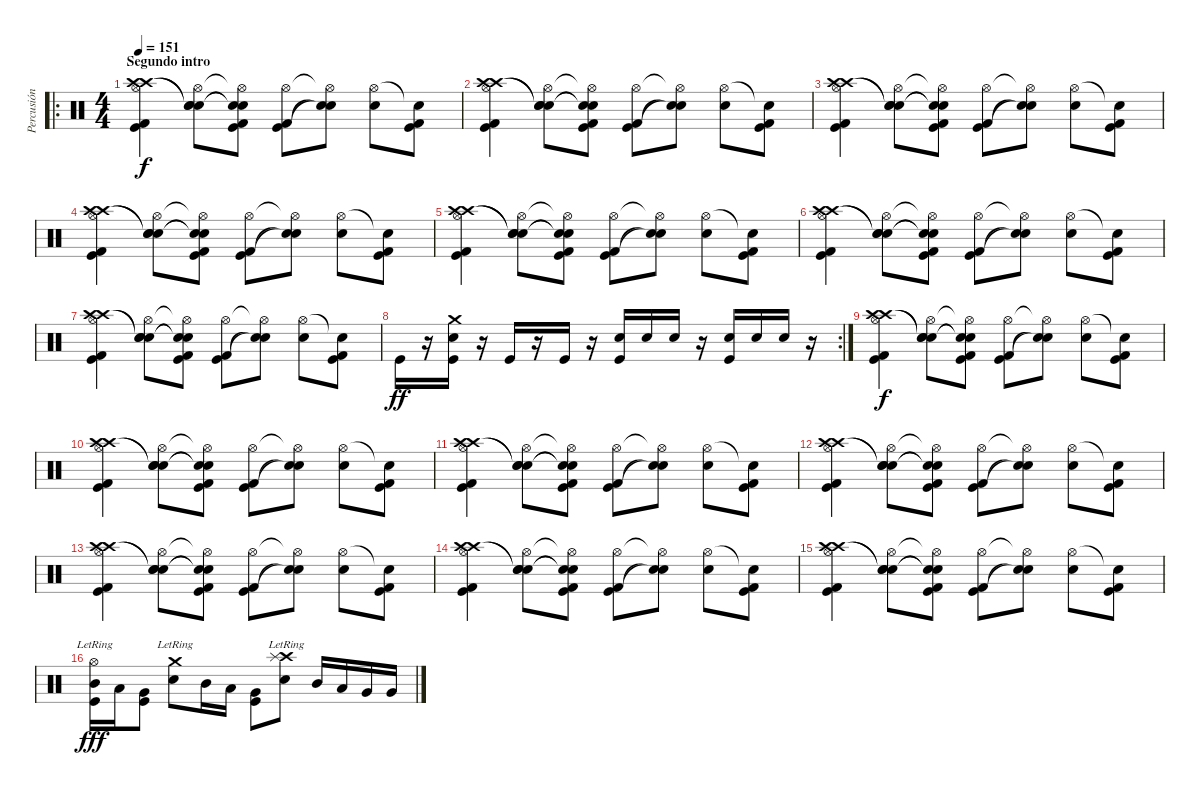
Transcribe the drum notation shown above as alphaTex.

\track ("Percusión" "Percusión") {instrument percussion}
\staff {score}
\articulation defaults
\ro
\ts (4 4)
\section ("" "Segundo intro")
\tempo 151
\clef neutral
\ks c
("Hi-Hat (open)" "Crash high (hit)" "Crash high (hit)" "Kick (hit)" "Kick (hit) 2").4{dy f} ("Hi-Hat (open)" "Snare (hit)"{t} "Snare (hit)"{t} "Electric Snare (hit)").8 ("Hi-Hat (open)"{t} "Snare (hit)"{t} "Snare (hit)"{t} "Kick (hit)" "Kick (hit) 2").8 ("Hi-Hat (open)" "Kick (hit)" "Kick (hit) 2").8 ("Hi-Hat (open)"{t} "Electric Snare (hit)"{t} "Snare (hit)"{t}).8 ("Hi-Hat (open)" "Electric Snare (hit)").8 ("Snare (hit)"{t} "Kick (hit)" "Kick (hit) 2").8 |
("Hi-Hat (open)" "Crash high (hit)" "Crash high (hit)" "Kick (hit)" "Kick (hit) 2").4 ("Hi-Hat (open)" "Snare (hit)"{t} "Snare (hit)"{t} "Electric Snare (hit)").8 ("Hi-Hat (open)"{t} "Snare (hit)"{t} "Snare (hit)"{t} "Kick (hit)" "Kick (hit) 2").8 ("Hi-Hat (open)" "Kick (hit)" "Kick (hit) 2").8 ("Hi-Hat (open)"{t} "Electric Snare (hit)"{t} "Snare (hit)"{t}).8 ("Hi-Hat (open)" "Electric Snare (hit)").8 ("Snare (hit)"{t} "Kick (hit)" "Kick (hit) 2").8 |
("Hi-Hat (open)" "Crash high (hit)" "Crash high (hit)" "Kick (hit)" "Kick (hit) 2").4 ("Hi-Hat (open)" "Snare (hit)"{t} "Snare (hit)"{t} "Electric Snare (hit)").8 ("Hi-Hat (open)"{t} "Snare (hit)"{t} "Snare (hit)"{t} "Kick (hit)" "Kick (hit) 2").8 ("Hi-Hat (open)" "Kick (hit)" "Kick (hit) 2").8 ("Hi-Hat (open)"{t} "Electric Snare (hit)"{t} "Snare (hit)"{t}).8 ("Hi-Hat (open)" "Electric Snare (hit)").8 ("Snare (hit)"{t} "Kick (hit)" "Kick (hit) 2").8 |
("Hi-Hat (open)" "Crash high (hit)" "Crash high (hit)" "Kick (hit)" "Kick (hit) 2").4 ("Hi-Hat (open)" "Snare (hit)"{t} "Snare (hit)"{t} "Electric Snare (hit)").8 ("Hi-Hat (open)"{t} "Snare (hit)"{t} "Snare (hit)"{t} "Kick (hit)" "Kick (hit) 2").8 ("Hi-Hat (open)" "Kick (hit)" "Kick (hit) 2").8 ("Hi-Hat (open)"{t} "Electric Snare (hit)"{t} "Snare (hit)"{t}).8 ("Hi-Hat (open)" "Electric Snare (hit)").8 ("Snare (hit)"{t} "Kick (hit)" "Kick (hit) 2").8 |
("Hi-Hat (open)" "Crash high (hit)" "Crash high (hit)" "Kick (hit)" "Kick (hit) 2").4 ("Hi-Hat (open)" "Snare (hit)"{t} "Snare (hit)"{t} "Electric Snare (hit)").8 ("Hi-Hat (open)"{t} "Snare (hit)"{t} "Snare (hit)"{t} "Kick (hit)" "Kick (hit) 2").8 ("Hi-Hat (open)" "Kick (hit)" "Kick (hit) 2").8 ("Hi-Hat (open)"{t} "Electric Snare (hit)"{t} "Snare (hit)"{t}).8 ("Hi-Hat (open)" "Electric Snare (hit)").8 ("Snare (hit)"{t} "Kick (hit)" "Kick (hit) 2").8 |
("Hi-Hat (open)" "Crash high (hit)" "Crash high (hit)" "Kick (hit)" "Kick (hit) 2").4 ("Hi-Hat (open)" "Snare (hit)"{t} "Snare (hit)"{t} "Electric Snare (hit)").8 ("Hi-Hat (open)"{t} "Snare (hit)"{t} "Snare (hit)"{t} "Kick (hit)" "Kick (hit) 2").8 ("Hi-Hat (open)" "Kick (hit)" "Kick (hit) 2").8 ("Hi-Hat (open)"{t} "Electric Snare (hit)"{t} "Snare (hit)"{t}).8 ("Hi-Hat (open)" "Electric Snare (hit)").8 ("Snare (hit)"{t} "Kick (hit)" "Kick (hit) 2").8 |
("Hi-Hat (open)" "Crash high (hit)" "Crash high (hit)" "Kick (hit)" "Kick (hit) 2").4 ("Hi-Hat (open)" "Snare (hit)"{t} "Snare (hit)"{t} "Electric Snare (hit)").8 ("Hi-Hat (open)"{t} "Snare (hit)"{t} "Snare (hit)"{t} "Kick (hit)" "Kick (hit) 2").8 ("Hi-Hat (open)" "Kick (hit)" "Kick (hit) 2").8 ("Hi-Hat (open)"{t} "Electric Snare (hit)"{t} "Snare (hit)"{t}).8 ("Hi-Hat (open)" "Electric Snare (hit)").8 ("Snare (hit)"{t} "Kick (hit)" "Kick (hit) 2").8 |
\rc 2 "Kick (hit)".16{dy ff}
r.16 ("Kick (hit)" "Snare (hit) 2" "Crash medium (hit)").16 r.16 "Kick (hit)".16 r.16 "Kick (hit)".16 r.16 ("Kick (hit)" "Snare (hit) 2").16 "Snare (hit) 2".16 "Snare (hit) 2".16 r.16 ("Kick (hit)" "Snare (hit) 2").16 "Snare (hit) 2".16 "Snare (hit) 2".16 r.16 |
("Hi-Hat (open)" "Crash high (hit)" "Crash high (hit)" "Kick (hit)" "Kick (hit) 2").4{dy f} ("Hi-Hat (open)" "Snare (hit)"{t} "Snare (hit)"{t} "Electric Snare (hit)").8 ("Hi-Hat (open)"{t} "Snare (hit)"{t} "Snare (hit)"{t} "Kick (hit)" "Kick (hit) 2").8 ("Hi-Hat (open)" "Kick (hit)" "Kick (hit) 2").8 ("Hi-Hat (open)"{t} "Electric Snare (hit)"{t} "Snare (hit)"{t}).8 ("Hi-Hat (open)" "Electric Snare (hit)").8 ("Snare (hit)"{t} "Kick (hit)" "Kick (hit) 2").8 |
("Hi-Hat (open)" "Crash high (hit)" "Crash high (hit)" "Kick (hit)" "Kick (hit) 2").4 ("Hi-Hat (open)" "Snare (hit)"{t} "Snare (hit)"{t} "Electric Snare (hit)").8 ("Hi-Hat (open)"{t} "Snare (hit)"{t} "Snare (hit)"{t} "Kick (hit)" "Kick (hit) 2").8 ("Hi-Hat (open)" "Kick (hit)" "Kick (hit) 2").8 ("Hi-Hat (open)"{t} "Electric Snare (hit)"{t} "Snare (hit)"{t}).8 ("Hi-Hat (open)" "Electric Snare (hit)").8 ("Snare (hit)"{t} "Kick (hit)" "Kick (hit) 2").8 |
("Hi-Hat (open)" "Crash high (hit)" "Crash high (hit)" "Kick (hit)" "Kick (hit) 2").4 ("Hi-Hat (open)" "Snare (hit)"{t} "Snare (hit)"{t} "Electric Snare (hit)").8 ("Hi-Hat (open)"{t} "Snare (hit)"{t} "Snare (hit)"{t} "Kick (hit)" "Kick (hit) 2").8 ("Hi-Hat (open)" "Kick (hit)" "Kick (hit) 2").8 ("Hi-Hat (open)"{t} "Electric Snare (hit)"{t} "Snare (hit)"{t}).8 ("Hi-Hat (open)" "Electric Snare (hit)").8 ("Snare (hit)"{t} "Kick (hit)" "Kick (hit) 2").8 |
("Hi-Hat (open)" "Crash high (hit)" "Crash high (hit)" "Kick (hit)" "Kick (hit) 2").4 ("Hi-Hat (open)" "Snare (hit)"{t} "Snare (hit)"{t} "Electric Snare (hit)").8 ("Hi-Hat (open)"{t} "Snare (hit)"{t} "Snare (hit)"{t} "Kick (hit)" "Kick (hit) 2").8 ("Hi-Hat (open)" "Kick (hit)" "Kick (hit) 2").8 ("Hi-Hat (open)"{t} "Electric Snare (hit)"{t} "Snare (hit)"{t}).8 ("Hi-Hat (open)" "Electric Snare (hit)").8 ("Snare (hit)"{t} "Kick (hit)" "Kick (hit) 2").8 |
("Hi-Hat (open)" "Crash high (hit)" "Crash high (hit)" "Kick (hit)" "Kick (hit) 2").4 ("Hi-Hat (open)" "Snare (hit)"{t} "Snare (hit)"{t} "Electric Snare (hit)").8 ("Hi-Hat (open)"{t} "Snare (hit)"{t} "Snare (hit)"{t} "Kick (hit)" "Kick (hit) 2").8 ("Hi-Hat (open)" "Kick (hit)" "Kick (hit) 2").8 ("Hi-Hat (open)"{t} "Electric Snare (hit)"{t} "Snare (hit)"{t}).8 ("Hi-Hat (open)" "Electric Snare (hit)").8 ("Snare (hit)"{t} "Kick (hit)" "Kick (hit) 2").8 |
("Hi-Hat (open)" "Crash high (hit)" "Crash high (hit)" "Kick (hit)" "Kick (hit) 2").4 ("Hi-Hat (open)" "Snare (hit)"{t} "Snare (hit)"{t} "Electric Snare (hit)").8 ("Hi-Hat (open)"{t} "Snare (hit)"{t} "Snare (hit)"{t} "Kick (hit)" "Kick (hit) 2").8 ("Hi-Hat (open)" "Kick (hit)" "Kick (hit) 2").8 ("Hi-Hat (open)"{t} "Electric Snare (hit)"{t} "Snare (hit)"{t}).8 ("Hi-Hat (open)" "Electric Snare (hit)").8 ("Snare (hit)"{t} "Kick (hit)" "Kick (hit) 2").8 |
("Hi-Hat (open)" "Crash high (hit)" "Crash high (hit)" "Kick (hit)" "Kick (hit) 2").4 ("Hi-Hat (open)" "Snare (hit)"{t} "Snare (hit)"{t} "Electric Snare (hit)").8 ("Hi-Hat (open)"{t} "Snare (hit)"{t} "Snare (hit)"{t} "Kick (hit)" "Kick (hit) 2").8 ("Hi-Hat (open)" "Kick (hit)" "Kick (hit) 2").8 ("Hi-Hat (open)"{t} "Electric Snare (hit)"{t} "Snare (hit)"{t}).8 ("Hi-Hat (open)" "Electric Snare (hit)").8 ("Snare (hit)"{t} "Kick (hit)" "Kick (hit) 2").8 |
("Hi-Hat (open)"{lr} "Mid Tom (hit)" "Kick (hit)").16{dy fff} "Low Tom (hit)".16 ("Very Low Tom (hit)" "Kick (hit)").8 ("Crash medium (hit)"{lr} "Snare (hit) 2").8 "Mid Tom (hit)".16 "Low Tom (hit)".16 ("Very Low Tom (hit)" "Kick (hit)").8 ("Crash high (hit)"{lr} "Splash (hit)"{lr} "Snare (hit) 2").8 "Mid Tom (hit)".16 "Low Tom (hit)".16 "Very Low Tom (hit)".16 "Very Low Tom (hit)".16
